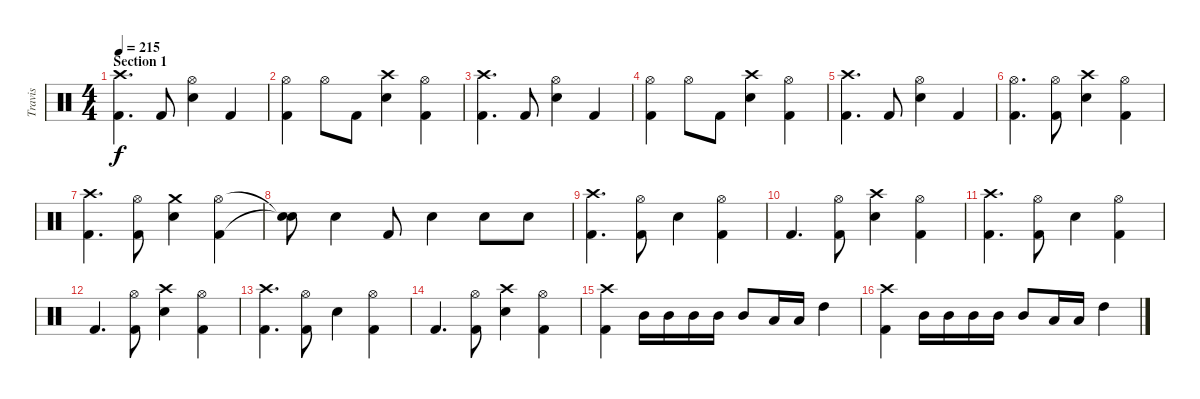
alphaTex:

\track ("Travis" "Travis") {instrument percussion}
\staff {score}
\articulation defaults
\ts (4 4)
\section ("" "Section 1")
\tempo 215
\clef neutral
\ks c
("Crash high (hit)" "Kick (hit) 2").4{d dy f} "Kick (hit) 2".8 ("Hi-Hat (open)" "Snare (hit) 2").4 "Kick (hit) 2".4 |
("Hi-Hat (open)" "Kick (hit) 2").4 "Hi-Hat (open)".8 "Kick (hit) 2".8 ("Crash high (hit)" "Snare (hit) 2").4 ("Hi-Hat (open)" "Kick (hit) 2").4 |
("Crash high (hit)" "Kick (hit) 2").4{d} "Kick (hit) 2".8 ("Hi-Hat (open)" "Snare (hit) 2").4 "Kick (hit) 2".4 |
("Hi-Hat (open)" "Kick (hit) 2").4 "Hi-Hat (open)".8 "Kick (hit) 2".8 ("Crash high (hit)" "Snare (hit) 2").4 ("Hi-Hat (open)" "Kick (hit) 2").4 |
("Crash high (hit)" "Kick (hit) 2").4{d} "Kick (hit) 2".8 ("Hi-Hat (open)" "Snare (hit) 2").4 "Kick (hit) 2".4 |
("Hi-Hat (open)" "Kick (hit) 2").4{d} ("Hi-Hat (open)" "Kick (hit) 2").8 ("Crash high (hit)" "Snare (hit) 2").4 ("Hi-Hat (open)" "Kick (hit) 2").4 |
("Crash high (hit)" "Kick (hit) 2").4{d} ("Hi-Hat (open)" "Kick (hit) 2").8 ("Crash medium (hit)" "Snare (hit) 2").4 ("Hi-Hat (open)" "Kick (hit) 2").4 |
("Snare (hit)"{t} "Snare (hit)"{t}).8 "Snare (hit) 2".4 "Kick (hit) 2".8 "Snare (hit) 2".4 "Snare (hit) 2".8 "Snare (hit) 2".8 |
("Crash high (hit)" "Kick (hit) 2").4{d} ("Hi-Hat (open)" "Kick (hit) 2").8 "Snare (hit) 2".4 ("Hi-Hat (open)" "Kick (hit) 2").4 |
"Kick (hit) 2".4{d} ("Hi-Hat (open)" "Kick (hit) 2").8 ("Crash high (hit)" "Snare (hit) 2").4 ("Hi-Hat (open)" "Kick (hit) 2").4 |
("Crash high (hit)" "Kick (hit) 2").4{d} ("Hi-Hat (open)" "Kick (hit) 2").8 "Snare (hit) 2".4 ("Hi-Hat (open)" "Kick (hit) 2").4 |
"Kick (hit) 2".4{d} ("Hi-Hat (open)" "Kick (hit) 2").8 ("Crash high (hit)" "Snare (hit) 2").4 ("Hi-Hat (open)" "Kick (hit) 2").4 |
("Crash high (hit)" "Kick (hit) 2").4{d} ("Hi-Hat (open)" "Kick (hit) 2").8 "Snare (hit) 2".4 ("Hi-Hat (open)" "Kick (hit) 2").4 |
"Kick (hit) 2".4{d} ("Hi-Hat (open)" "Kick (hit) 2").8 ("Crash high (hit)" "Snare (hit) 2").4 ("Hi-Hat (open)" "Kick (hit) 2").4 |
("Crash high (hit)" "Kick (hit) 2").4 "Mid Tom (hit)".16 "Mid Tom (hit)".16 "Mid Tom (hit)".16 "Mid Tom (hit)".16 "Mid Tom (hit)".8 "Low Tom (hit)".16 "Low Tom (hit)".16 "High Tom (hit)".4 |
("Crash high (hit)" "Kick (hit) 2").4 "Mid Tom (hit)".16 "Mid Tom (hit)".16 "Mid Tom (hit)".16 "Mid Tom (hit)".16 "Mid Tom (hit)".8 "Low Tom (hit)".16 "Low Tom (hit)".16 "High Tom (hit)".4
